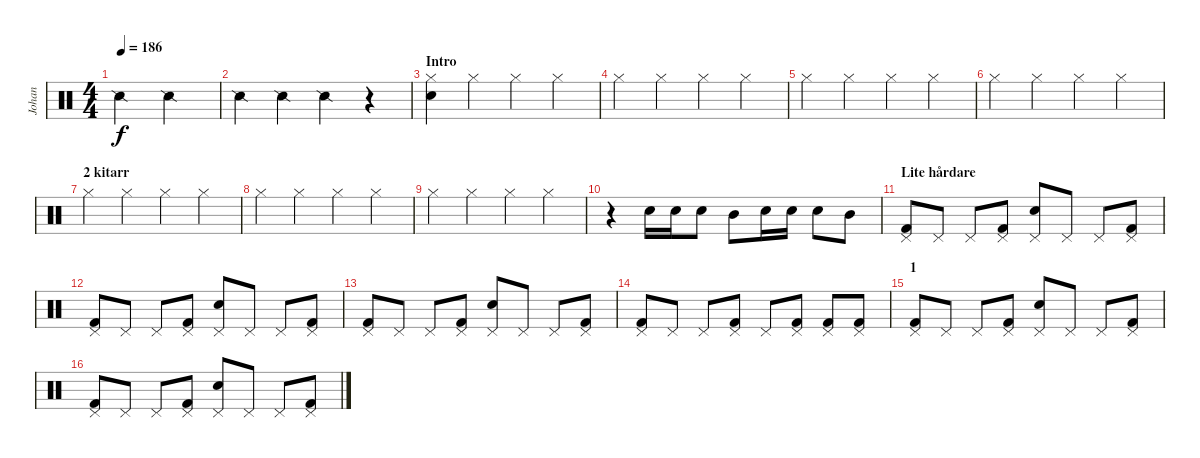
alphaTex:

\track ("Johan" "Johan") {instrument percussion}
\staff {score}
\articulation defaults
\ts (4 4)
\tempo 186
\clef neutral
\ks c "Snare (side stick) 2".2{dy f} "Snare (side stick) 2".2
|
"Snare (side stick) 2".4 "Snare (side stick) 2".4 "Snare (side stick) 2".4 r.4 |
\section ("" "Intro")
("Snare (hit) 2" "Hi-Hat (closed)").4 "Hi-Hat (closed)".4 "Hi-Hat (closed)".4 "Hi-Hat (closed)".4 |
"Hi-Hat (closed)".4 "Hi-Hat (closed)".4 "Hi-Hat (closed)".4 "Hi-Hat (closed)".4 |
"Hi-Hat (closed)".4 "Hi-Hat (closed)".4 "Hi-Hat (closed)".4 "Hi-Hat (closed)".4 |
"Hi-Hat (closed)".4 "Hi-Hat (closed)".4 "Hi-Hat (closed)".4 "Hi-Hat (closed)".4 |
\section ("" "2 kitarr")
"Hi-Hat (closed)".4 "Hi-Hat (closed)".4 "Hi-Hat (closed)".4 "Hi-Hat (closed)".4 |
"Hi-Hat (closed)".4 "Hi-Hat (closed)".4 "Hi-Hat (closed)".4 "Hi-Hat (closed)".4 |
"Hi-Hat (closed)".4 "Hi-Hat (closed)".4 "Hi-Hat (closed)".4 "Hi-Hat (closed)".4 |
r.4 "Snare (hit) 2".16 "Snare (hit) 2".16 "Snare (hit) 2".8 "Mid Tom (hit)".8 "Snare (hit) 2".16 "Snare (hit) 2".16 "Snare (hit) 2".8 "Mid Tom (hit)".8 |
\section ("" "Lite hårdare")
("Pedal Hi-Hat (hit)" "Kick (hit) 2").8 "Pedal Hi-Hat (hit)".8 "Pedal Hi-Hat (hit)".8 ("Pedal Hi-Hat (hit)" "Kick (hit) 2").8 ("Pedal Hi-Hat (hit)" "Snare (hit) 2").8 "Pedal Hi-Hat (hit)".8 "Pedal Hi-Hat (hit)".8 ("Pedal Hi-Hat (hit)" "Kick (hit) 2").8 |
("Pedal Hi-Hat (hit)" "Kick (hit) 2").8 "Pedal Hi-Hat (hit)".8 "Pedal Hi-Hat (hit)".8 ("Pedal Hi-Hat (hit)" "Kick (hit) 2").8 ("Pedal Hi-Hat (hit)" "Snare (hit) 2").8 "Pedal Hi-Hat (hit)".8 "Pedal Hi-Hat (hit)".8 ("Pedal Hi-Hat (hit)" "Kick (hit) 2").8 |
("Pedal Hi-Hat (hit)" "Kick (hit) 2").8 "Pedal Hi-Hat (hit)".8 "Pedal Hi-Hat (hit)".8 ("Pedal Hi-Hat (hit)" "Kick (hit) 2").8 ("Pedal Hi-Hat (hit)" "Snare (hit) 2").8 "Pedal Hi-Hat (hit)".8 "Pedal Hi-Hat (hit)".8 ("Pedal Hi-Hat (hit)" "Kick (hit) 2").8 |
("Pedal Hi-Hat (hit)" "Kick (hit) 2").8 "Pedal Hi-Hat (hit)".8 "Pedal Hi-Hat (hit)".8 ("Pedal Hi-Hat (hit)" "Kick (hit) 2").8 "Pedal Hi-Hat (hit)".8 ("Pedal Hi-Hat (hit)" "Kick (hit) 2").8 ("Pedal Hi-Hat (hit)" "Kick (hit) 2").8 ("Pedal Hi-Hat (hit)" "Kick (hit) 2").8 |
\section ("" "1")
("Pedal Hi-Hat (hit)" "Kick (hit) 2").8 "Pedal Hi-Hat (hit)".8 "Pedal Hi-Hat (hit)".8 ("Pedal Hi-Hat (hit)" "Kick (hit) 2").8 ("Pedal Hi-Hat (hit)" "Snare (hit) 2").8 "Pedal Hi-Hat (hit)".8 "Pedal Hi-Hat (hit)".8 ("Pedal Hi-Hat (hit)" "Kick (hit) 2").8 |
("Pedal Hi-Hat (hit)" "Kick (hit) 2").8 "Pedal Hi-Hat (hit)".8 "Pedal Hi-Hat (hit)".8 ("Pedal Hi-Hat (hit)" "Kick (hit) 2").8 ("Pedal Hi-Hat (hit)" "Snare (hit) 2").8 "Pedal Hi-Hat (hit)".8 "Pedal Hi-Hat (hit)".8 ("Pedal Hi-Hat (hit)" "Kick (hit) 2").8
